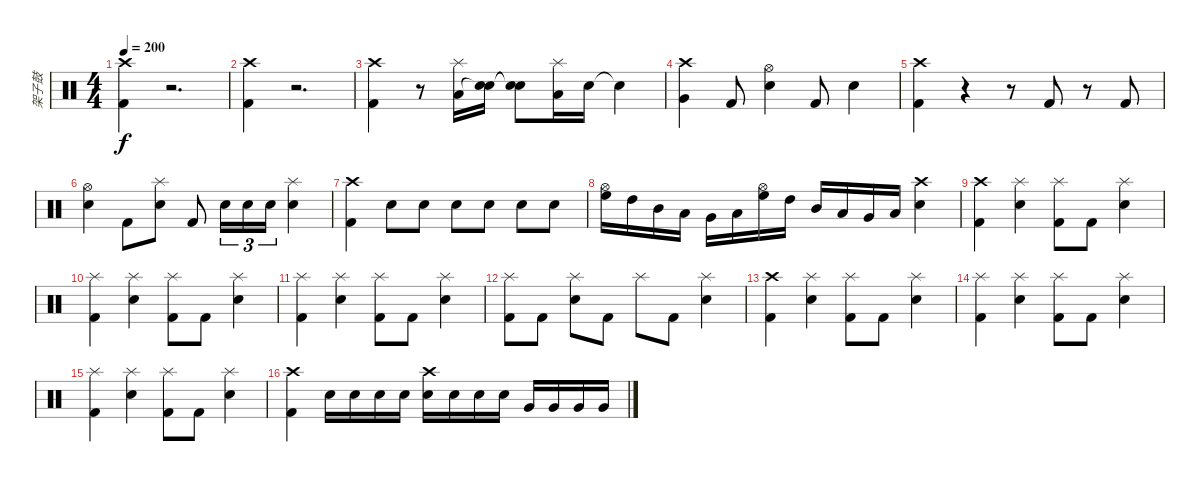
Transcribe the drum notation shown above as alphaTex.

\track ("架子鼓" "架子鼓") {instrument percussion}
\staff {score}
\articulation defaults
\ts (4 4)
\tempo 196
\tempo 200
\clef neutral
\ks c
("Crash high (hit)" "Kick (hit) 2").4{dy f} r.2{d} |
("Crash high (hit)" "Kick (hit) 2").4 r.2{d} |
("Crash high (hit)" "Kick (hit) 2").4 r.8 ("Splash (hit)" "Low Tom (hit)").16 ("Electric Snare (hit)" "Snare (hit)"{t}).16 ("Snare (hit)"{t} "Snare (hit)"{t}).8 ("Splash (hit)" "Low Tom (hit)").16 "Snare (hit) 2".16 "Snare (hit)"{t}.4 |
("Crash high (hit)" "Very Low Tom (hit)").4 "Kick (hit) 2".8 ("Hi-Hat (open)" "Snare (hit) 2").4 "Kick (hit) 2".8 "Electric Snare (hit)".4 |
("Crash high (hit)" "Kick (hit) 2").4 r.4 r.8 "Kick (hit) 2".8 r.8 "Kick (hit) 2".8 |
("Hi-Hat (open)" "Electric Snare (hit)").4 "Kick (hit) 2".8 ("Splash (hit)" "Electric Snare (hit)").8 "Kick (hit) 2".8 "Electric Snare (hit)".16{tu (3 2)} "Electric Snare (hit)".16{tu (3 2)} "Electric Snare (hit)".16{tu (3 2)} ("Splash (hit)" "Electric Snare (hit)").4 |
("Crash high (hit)" "Kick (hit) 2").4 "Electric Snare (hit)".8 "Electric Snare (hit)".8 "Electric Snare (hit)".8 "Electric Snare (hit)".8 "Electric Snare (hit)".8 "Electric Snare (hit)".8 |
("Hi-Hat (open)" "High Floor Tom (hit)").16 "High Tom (hit)".16 "Mid Tom (hit)".16 "Low Tom (hit)".16 "Very Low Tom (hit)".16 "Low Floor Tom (hit)".16 ("Hi-Hat (open)" "High Floor Tom (hit)").16 "High Tom (hit)".16 "Mid Tom (hit)".16 "Low Tom (hit)".16 "Very Low Tom (hit)".16 "Low Floor Tom (hit)".16 ("Crash high (hit)" "Snare (hit) 2").4 |
("Crash high (hit)" "Kick (hit) 2").4 ("Splash (hit)" "Snare (hit) 2").4 ("Splash (hit)" "Kick (hit) 2").8 "Kick (hit) 2".8 ("Splash (hit)" "Snare (hit) 2").4 |
("Splash (hit)" "Kick (hit) 2").4 ("Splash (hit)" "Snare (hit) 2").4 ("Splash (hit)" "Kick (hit) 2").8 "Kick (hit) 2".8 ("Splash (hit)" "Snare (hit) 2").4 |
("Splash (hit)" "Kick (hit) 2").4 ("Splash (hit)" "Snare (hit) 2").4 ("Splash (hit)" "Kick (hit) 2").8 "Kick (hit) 2".8 ("Splash (hit)" "Snare (hit) 2").4 |
("Splash (hit)" "Kick (hit) 2").8 "Kick (hit) 2".8 ("Splash (hit)" "Snare (hit) 2").8 "Kick (hit) 2".8 "Splash (hit)".8 "Kick (hit) 2".8 ("Splash (hit)" "Snare (hit) 2").4 |
("Crash high (hit)" "Kick (hit) 2").4 ("Splash (hit)" "Snare (hit) 2").4 ("Splash (hit)" "Kick (hit) 2").8 "Kick (hit) 2".8 ("Splash (hit)" "Snare (hit) 2").4 |
("Splash (hit)" "Kick (hit) 2").4 ("Splash (hit)" "Snare (hit) 2").4 ("Splash (hit)" "Kick (hit) 2").8 "Kick (hit) 2".8 ("Splash (hit)" "Snare (hit) 2").4 |
("Splash (hit)" "Kick (hit) 2").4 ("Splash (hit)" "Snare (hit) 2").4 ("Splash (hit)" "Kick (hit) 2").8 "Kick (hit) 2".8 ("Splash (hit)" "Snare (hit) 2").4 |
("Crash high (hit)" "Kick (hit) 2").4 "Snare (hit) 2".16 "Snare (hit) 2".16 "Snare (hit) 2".16 "Snare (hit) 2".16 ("Crash high (hit)" "Electric Snare (hit)").16 "Electric Snare (hit)".16 "Electric Snare (hit)".16 "Electric Snare (hit)".16 "Very Low Tom (hit)".16 "Very Low Tom (hit)".16 "Very Low Tom (hit)".16 "Very Low Tom (hit)".16
